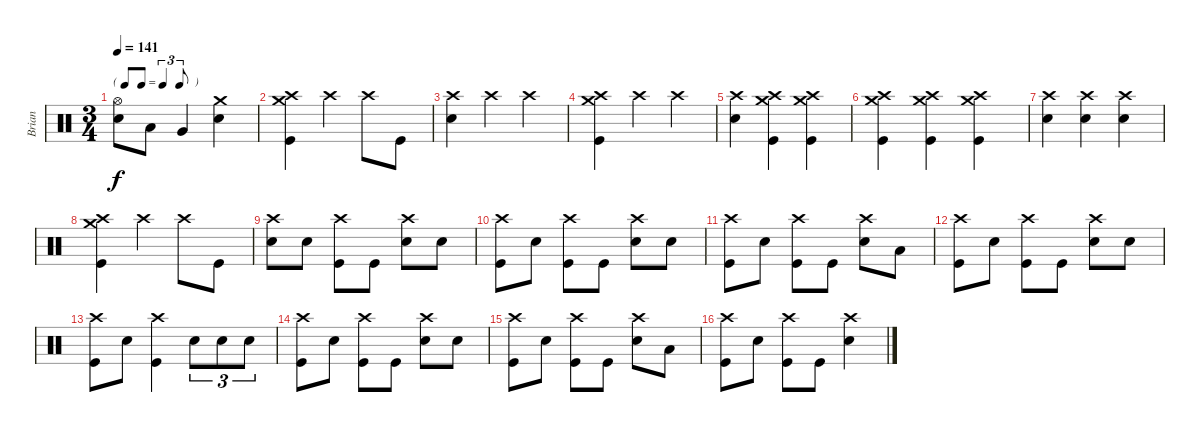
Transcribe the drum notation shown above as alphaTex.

\track ("Brian" "Brian") {instrument percussion}
\staff {score}
\articulation defaults
\ts (3 4)
\tf triplet8th
\tempo 141
\clef neutral
\ks c
("Hi-Hat (open)" "Electric Snare (hit)").8{dy f} "Low Tom (hit)".8 "Very Low Tom (hit)".4 ("Crash medium (hit)" "Electric Snare (hit)").4 |
("Crash medium (hit)" "Crash high (hit)" "Kick (hit)").4 "Crash high (hit)".4 "Crash high (hit)".8 "Kick (hit)".8 |
("Crash high (hit)" "Electric Snare (hit)").4 "Crash high (hit)".4 "Crash high (hit)".4 |
("Crash medium (hit)" "Crash high (hit)" "Kick (hit)").4 "Crash high (hit)".4 "Crash high (hit)".4 |
("Crash high (hit)" "Electric Snare (hit)").4 ("Crash medium (hit)" "Crash high (hit)" "Kick (hit)").4 ("Crash medium (hit)" "Crash high (hit)" "Kick (hit)").4 |
("Crash medium (hit)" "Crash high (hit)" "Kick (hit)").4 ("Crash medium (hit)" "Crash high (hit)" "Kick (hit)").4 ("Crash medium (hit)" "Crash high (hit)" "Kick (hit)").4 |
("Crash high (hit)" "Electric Snare (hit)").4 ("Crash high (hit)" "Electric Snare (hit)").4 ("Crash high (hit)" "Electric Snare (hit)").4 |
("Crash medium (hit)" "Crash high (hit)" "Kick (hit)").4 "Crash high (hit)".4 "Crash high (hit)".8 "Kick (hit)".8 |
("Crash high (hit)" "Electric Snare (hit)").8 "Electric Snare (hit)".8 ("Crash high (hit)" "Kick (hit)").8 "Kick (hit)".8 ("Crash high (hit)" "Electric Snare (hit)").8 "Electric Snare (hit)".8 |
("Crash high (hit)" "Kick (hit)").8 "Electric Snare (hit)".8 ("Crash high (hit)" "Kick (hit)").8 "Kick (hit)".8 ("Crash high (hit)" "Electric Snare (hit)").8 "Electric Snare (hit)".8 |
("Crash high (hit)" "Kick (hit)").8 "Electric Snare (hit)".8 ("Crash high (hit)" "Kick (hit)").8 "Kick (hit)".8 ("Crash high (hit)" "Electric Snare (hit)").8 "Low Tom (hit)".8 |
("Crash high (hit)" "Kick (hit)").8 "Electric Snare (hit)".8 ("Crash high (hit)" "Kick (hit)").8 "Kick (hit)".8 ("Crash high (hit)" "Electric Snare (hit)").8 "Electric Snare (hit)".8 |
("Crash high (hit)" "Kick (hit)").8 "Electric Snare (hit)".8 ("Crash high (hit)" "Kick (hit)").4 "Electric Snare (hit)".8{tu (3 2)} "Electric Snare (hit)".8{tu (3 2)} "Electric Snare (hit)".8{tu (3 2)} |
("Crash high (hit)" "Kick (hit)").8 "Electric Snare (hit)".8 ("Crash high (hit)" "Kick (hit)").8 "Kick (hit)".8 ("Crash high (hit)" "Electric Snare (hit)").8 "Electric Snare (hit)".8 |
("Crash high (hit)" "Kick (hit)").8 "Electric Snare (hit)".8 ("Crash high (hit)" "Kick (hit)").8 "Kick (hit)".8 ("Crash high (hit)" "Electric Snare (hit)").8 "Low Tom (hit)".8 |
("Crash high (hit)" "Kick (hit)").8 "Electric Snare (hit)".8 ("Crash high (hit)" "Kick (hit)").8 "Kick (hit)".8 ("Crash high (hit)" "Electric Snare (hit)").4
